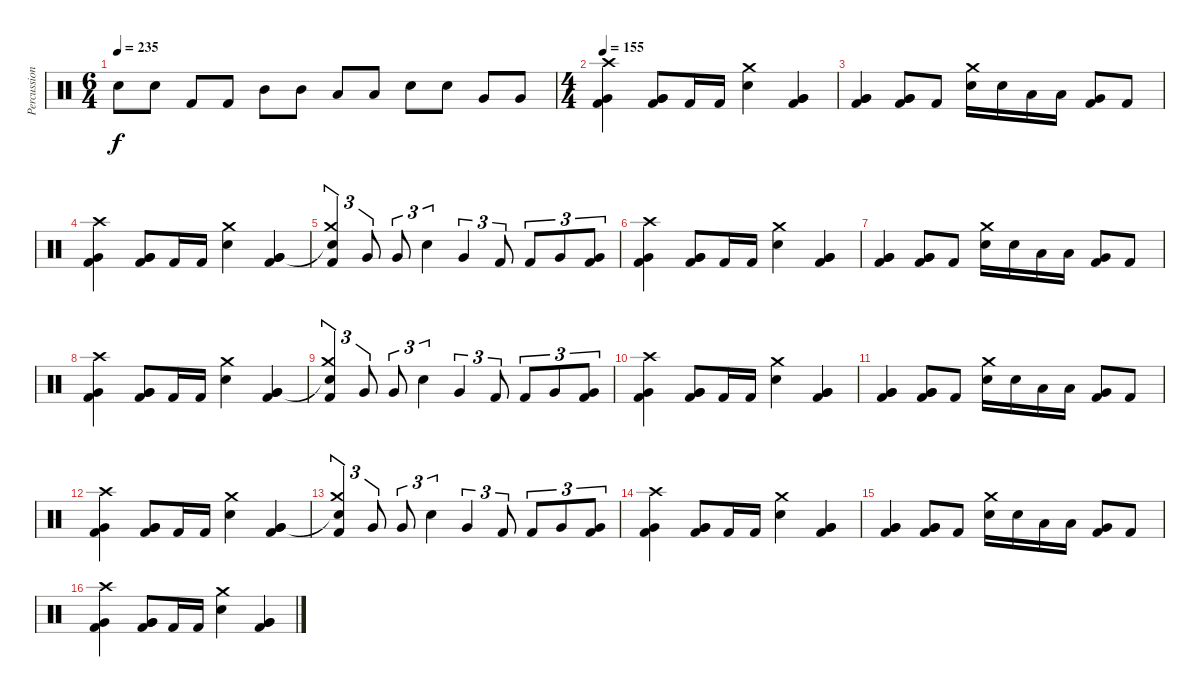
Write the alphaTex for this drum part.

\track ("Percussion" "Percussion") {instrument percussion}
\staff {score}
\articulation defaults
\ts (6 4)
\tempo 235
\clef neutral
\ks c "Electric Snare (hit)".8{dy f} "Electric Snare (hit)".8 "Kick (hit) 2".8 "Kick (hit) 2".8 "Mid Tom (hit)".8 "Mid Tom (hit)".8 "Low Tom (hit)".8 "Low Tom (hit)".8 "Electric Snare (hit)".8 "Electric Snare (hit)".8 "Very Low Tom (hit)".8 "Very Low Tom (hit)".8
|
\ts (4 4)
\tempo 155
("Crash high (hit)" "Very Low Tom (hit)" "Kick (hit) 2").4 ("Very Low Tom (hit)" "Very Low Tom (hit)" "Kick (hit) 2").8 "Kick (hit) 2".16 "Kick (hit) 2".16 ("Crash medium (hit)" "Electric Snare (hit)").4 ("Very Low Tom (hit)" "Very Low Tom (hit)" "Kick (hit) 2").4 |
("Very Low Tom (hit)" "Very Low Tom (hit)" "Kick (hit) 2").4 ("Very Low Tom (hit)" "Very Low Tom (hit)" "Kick (hit) 2").8 "Kick (hit) 2".8 ("Crash medium (hit)" "Electric Snare (hit)").16 "Electric Snare (hit)".16 "Low Tom (hit)".16 "Low Tom (hit)".16 ("Very Low Tom (hit)" "Kick (hit) 2").8 "Kick (hit) 2".8 |
("Crash high (hit)" "Very Low Tom (hit)" "Kick (hit) 2").4 ("Very Low Tom (hit)" "Very Low Tom (hit)" "Kick (hit) 2").8 "Kick (hit) 2".16 "Kick (hit) 2".16 ("Crash medium (hit)" "Electric Snare (hit)").4 ("Very Low Tom (hit)" "Very Low Tom (hit)" "Kick (hit) 2").4 |
("Crash medium (hit)" "Snare (hit)"{t} "Kick (hit) 2").4{tu (3 2)} "Very Low Tom (hit)".8{tu (3 2)} "Very Low Tom (hit)".8{tu (3 2)} "Electric Snare (hit)".4{tu (3 2)} "Very Low Tom (hit)".4{tu (3 2)} "Kick (hit) 2".8{tu (3 2)} "Kick (hit) 2".8{tu (3 2)} "Very Low Tom (hit)".8{tu (3 2)} ("Very Low Tom (hit)" "Kick (hit) 2").8{tu (3 2)} |
("Crash high (hit)" "Very Low Tom (hit)" "Kick (hit) 2").4 ("Very Low Tom (hit)" "Very Low Tom (hit)" "Kick (hit) 2").8 "Kick (hit) 2".16 "Kick (hit) 2".16 ("Crash medium (hit)" "Electric Snare (hit)").4 ("Very Low Tom (hit)" "Very Low Tom (hit)" "Kick (hit) 2").4 |
("Very Low Tom (hit)" "Very Low Tom (hit)" "Kick (hit) 2").4 ("Very Low Tom (hit)" "Very Low Tom (hit)" "Kick (hit) 2").8 "Kick (hit) 2".8 ("Crash medium (hit)" "Electric Snare (hit)").16 "Electric Snare (hit)".16 "Low Tom (hit)".16 "Low Tom (hit)".16 ("Very Low Tom (hit)" "Kick (hit) 2").8 "Kick (hit) 2".8 |
("Crash high (hit)" "Very Low Tom (hit)" "Kick (hit) 2").4 ("Very Low Tom (hit)" "Very Low Tom (hit)" "Kick (hit) 2").8 "Kick (hit) 2".16 "Kick (hit) 2".16 ("Crash medium (hit)" "Electric Snare (hit)").4 ("Very Low Tom (hit)" "Very Low Tom (hit)" "Kick (hit) 2").4 |
("Crash medium (hit)" "Snare (hit)"{t} "Kick (hit) 2").4{tu (3 2)} "Very Low Tom (hit)".8{tu (3 2)} "Very Low Tom (hit)".8{tu (3 2)} "Electric Snare (hit)".4{tu (3 2)} "Very Low Tom (hit)".4{tu (3 2)} "Kick (hit) 2".8{tu (3 2)} "Kick (hit) 2".8{tu (3 2)} "Very Low Tom (hit)".8{tu (3 2)} ("Very Low Tom (hit)" "Kick (hit) 2").8{tu (3 2)} |
("Crash high (hit)" "Very Low Tom (hit)" "Kick (hit) 2").4 ("Very Low Tom (hit)" "Very Low Tom (hit)" "Kick (hit) 2").8 "Kick (hit) 2".16 "Kick (hit) 2".16 ("Crash medium (hit)" "Electric Snare (hit)").4 ("Very Low Tom (hit)" "Very Low Tom (hit)" "Kick (hit) 2").4 |
("Very Low Tom (hit)" "Very Low Tom (hit)" "Kick (hit) 2").4 ("Very Low Tom (hit)" "Very Low Tom (hit)" "Kick (hit) 2").8 "Kick (hit) 2".8 ("Crash medium (hit)" "Electric Snare (hit)").16 "Electric Snare (hit)".16 "Low Tom (hit)".16 "Low Tom (hit)".16 ("Very Low Tom (hit)" "Kick (hit) 2").8 "Kick (hit) 2".8 |
("Crash high (hit)" "Very Low Tom (hit)" "Kick (hit) 2").4 ("Very Low Tom (hit)" "Very Low Tom (hit)" "Kick (hit) 2").8 "Kick (hit) 2".16 "Kick (hit) 2".16 ("Crash medium (hit)" "Electric Snare (hit)").4 ("Very Low Tom (hit)" "Very Low Tom (hit)" "Kick (hit) 2").4 |
("Crash medium (hit)" "Snare (hit)"{t} "Kick (hit) 2").4{tu (3 2)} "Very Low Tom (hit)".8{tu (3 2)} "Very Low Tom (hit)".8{tu (3 2)} "Electric Snare (hit)".4{tu (3 2)} "Very Low Tom (hit)".4{tu (3 2)} "Kick (hit) 2".8{tu (3 2)} "Kick (hit) 2".8{tu (3 2)} "Very Low Tom (hit)".8{tu (3 2)} ("Very Low Tom (hit)" "Kick (hit) 2").8{tu (3 2)} |
("Crash high (hit)" "Very Low Tom (hit)" "Kick (hit) 2").4 ("Very Low Tom (hit)" "Very Low Tom (hit)" "Kick (hit) 2").8 "Kick (hit) 2".16 "Kick (hit) 2".16 ("Crash medium (hit)" "Electric Snare (hit)").4 ("Very Low Tom (hit)" "Very Low Tom (hit)" "Kick (hit) 2").4 |
("Very Low Tom (hit)" "Very Low Tom (hit)" "Kick (hit) 2").4 ("Very Low Tom (hit)" "Very Low Tom (hit)" "Kick (hit) 2").8 "Kick (hit) 2".8 ("Crash medium (hit)" "Electric Snare (hit)").16 "Electric Snare (hit)".16 "Low Tom (hit)".16 "Low Tom (hit)".16 ("Very Low Tom (hit)" "Kick (hit) 2").8 "Kick (hit) 2".8 |
("Crash high (hit)" "Very Low Tom (hit)" "Kick (hit) 2").4 ("Very Low Tom (hit)" "Very Low Tom (hit)" "Kick (hit) 2").8 "Kick (hit) 2".16 "Kick (hit) 2".16 ("Crash medium (hit)" "Electric Snare (hit)").4 ("Very Low Tom (hit)" "Very Low Tom (hit)" "Kick (hit) 2").4
